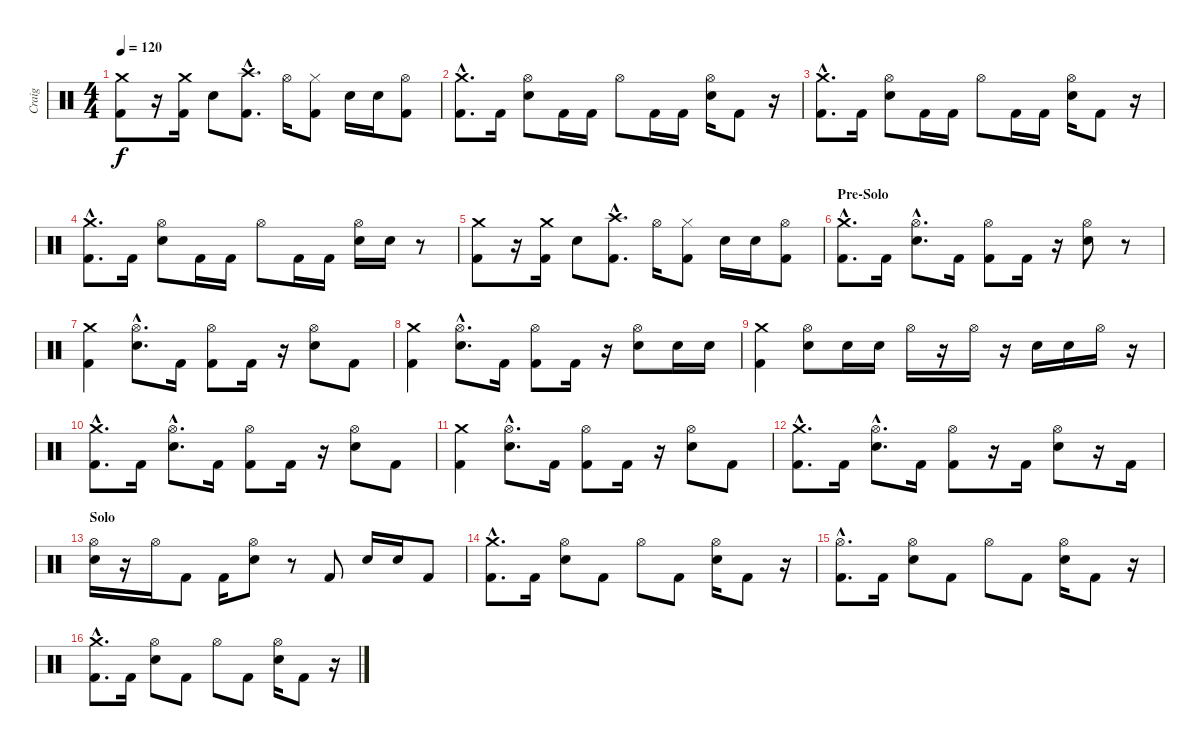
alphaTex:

\track ("Craig" "Craig") {instrument percussion}
\staff {score}
\articulation defaults
\ts (4 4)
\tempo 120
\clef neutral
\ks c
("Crash medium (hit)" "Kick (hit) 2").8{dy f} r.16 ("Crash medium (hit)" "Kick (hit) 2").16 "Electric Snare (hit)".8 ("Crash high (hit)"{hac} "Kick (hit) 2"{hac}).8{d} "Hi-Hat (open)".16 ("Hi-Hat (closed)" "Kick (hit) 2").8 "Electric Snare (hit)".16 "Electric Snare (hit)".16 ("Hi-Hat (open)" "Kick (hit) 2").8 |
("Crash medium (hit)"{hac} "Kick (hit) 2"{hac}).8{d} "Kick (hit) 2".16 ("Hi-Hat (open)" "Electric Snare (hit)").8 "Kick (hit) 2".16 "Kick (hit) 2".16 "Hi-Hat (open)".8 "Kick (hit) 2".16 "Kick (hit) 2".16 ("Hi-Hat (open)" "Electric Snare (hit)").16 "Kick (hit) 2".8 r.16 |
("Crash medium (hit)"{hac} "Kick (hit) 2"{hac}).8{d} "Kick (hit) 2".16 ("Hi-Hat (open)" "Electric Snare (hit)").8 "Kick (hit) 2".16 "Kick (hit) 2".16 "Hi-Hat (open)".8 "Kick (hit) 2".16 "Kick (hit) 2".16 ("Hi-Hat (open)" "Electric Snare (hit)").16 "Kick (hit) 2".8 r.16 |
("Crash medium (hit)"{hac} "Kick (hit) 2"{hac}).8{d} "Kick (hit) 2".16 ("Hi-Hat (open)" "Electric Snare (hit)").8 "Kick (hit) 2".16 "Kick (hit) 2".16 "Hi-Hat (open)".8 "Kick (hit) 2".16 "Kick (hit) 2".16 ("Hi-Hat (open)" "Electric Snare (hit)").16 "Electric Snare (hit)".16 r.8 |
("Crash medium (hit)" "Kick (hit) 2").8 r.16 ("Crash medium (hit)" "Kick (hit) 2").16 "Electric Snare (hit)".8 ("Crash high (hit)"{hac} "Kick (hit) 2"{hac}).8{d} "Hi-Hat (open)".16 ("Hi-Hat (closed)" "Kick (hit) 2").8 "Electric Snare (hit)".16 "Electric Snare (hit)".16 ("Hi-Hat (open)" "Kick (hit) 2").8 |
\section ("" "Pre-Solo")
("Crash medium (hit)"{hac} "Kick (hit) 2"{hac}).8{d} "Kick (hit) 2".16 ("Hi-Hat (open)"{hac} "Electric Snare (hit)"{hac}).8{d} "Kick (hit) 2".16 ("Hi-Hat (open)" "Kick (hit) 2").8 "Kick (hit) 2".16 r.16 ("Hi-Hat (open)" "Electric Snare (hit)").8 r.8 |
("Crash medium (hit)" "Kick (hit) 2").4 ("Hi-Hat (open)"{hac} "Electric Snare (hit)"{hac}).8{d} "Kick (hit) 2".16 ("Hi-Hat (open)" "Kick (hit) 2").8 "Kick (hit) 2".16 r.16 ("Hi-Hat (open)" "Electric Snare (hit)").8 "Kick (hit) 2".8 |
("Crash medium (hit)" "Kick (hit) 2").4 ("Hi-Hat (open)"{hac} "Electric Snare (hit)"{hac}).8{d} "Kick (hit) 2".16 ("Hi-Hat (open)" "Kick (hit) 2").8 "Kick (hit) 2".16 r.16 ("Hi-Hat (open)" "Electric Snare (hit)").8 "Electric Snare (hit)".16 "Electric Snare (hit)".16 |
("Crash medium (hit)" "Kick (hit) 2").4 ("Hi-Hat (open)" "Electric Snare (hit)").8 "Electric Snare (hit)".16 "Electric Snare (hit)".16 "Hi-Hat (open)".16 r.16 "Hi-Hat (open)".16 r.16 "Electric Snare (hit)".16 "Electric Snare (hit)".16 "Hi-Hat (open)".16 r.16 |
("Crash medium (hit)"{hac} "Kick (hit) 2"{hac}).8{d} "Kick (hit) 2".16 ("Hi-Hat (open)"{hac} "Electric Snare (hit)"{hac}).8{d} "Kick (hit) 2".16 ("Hi-Hat (open)" "Kick (hit) 2").8 "Kick (hit) 2".16 r.16 ("Hi-Hat (open)" "Electric Snare (hit)").8 "Kick (hit) 2".8 |
("Crash medium (hit)" "Kick (hit) 2").4 ("Hi-Hat (open)"{hac} "Electric Snare (hit)"{hac}).8{d} "Kick (hit) 2".16 ("Hi-Hat (open)" "Kick (hit) 2").8 "Kick (hit) 2".16 r.16 ("Hi-Hat (open)" "Electric Snare (hit)").8 "Kick (hit) 2".8 |
("Crash medium (hit)"{hac} "Kick (hit) 2"{hac}).8{d} "Kick (hit) 2".16 ("Hi-Hat (open)"{hac} "Electric Snare (hit)"{hac}).8{d} "Kick (hit) 2".16 ("Hi-Hat (open)" "Kick (hit) 2").8 r.16 "Kick (hit) 2".16 ("Hi-Hat (open)" "Electric Snare (hit)").8 r.16 "Kick (hit) 2".16 |
\section ("" "Solo")
("Hi-Hat (open)" "Electric Snare (hit)").16 r.16 "Hi-Hat (open)".16 "Kick (hit) 2".8 "Kick (hit) 2".16 ("Hi-Hat (open)" "Electric Snare (hit)").8 r.8 "Kick (hit) 2".8 "Electric Snare (hit)".16 "Electric Snare (hit)".16 "Kick (hit) 2".8 |
("Crash medium (hit)"{hac} "Kick (hit) 2"{hac}).8{d} "Kick (hit) 2".16 ("Hi-Hat (open)" "Electric Snare (hit)").8 "Kick (hit) 2".8 "Hi-Hat (open)".8 "Kick (hit) 2".8 ("Hi-Hat (open)" "Electric Snare (hit)").16 "Kick (hit) 2".8 r.16 |
("Hi-Hat (open)"{hac} "Kick (hit) 2"{hac}).8{d} "Kick (hit) 2".16 ("Hi-Hat (open)" "Electric Snare (hit)").8 "Kick (hit) 2".8 "Hi-Hat (open)".8 "Kick (hit) 2".8 ("Hi-Hat (open)" "Electric Snare (hit)").16 "Kick (hit) 2".8 r.16 |
("Crash medium (hit)"{hac} "Kick (hit) 2"{hac}).8{d} "Kick (hit) 2".16 ("Hi-Hat (open)" "Electric Snare (hit)").8 "Kick (hit) 2".8 "Hi-Hat (open)".8 "Kick (hit) 2".8 ("Hi-Hat (open)" "Electric Snare (hit)").16 "Kick (hit) 2".8 r.16
